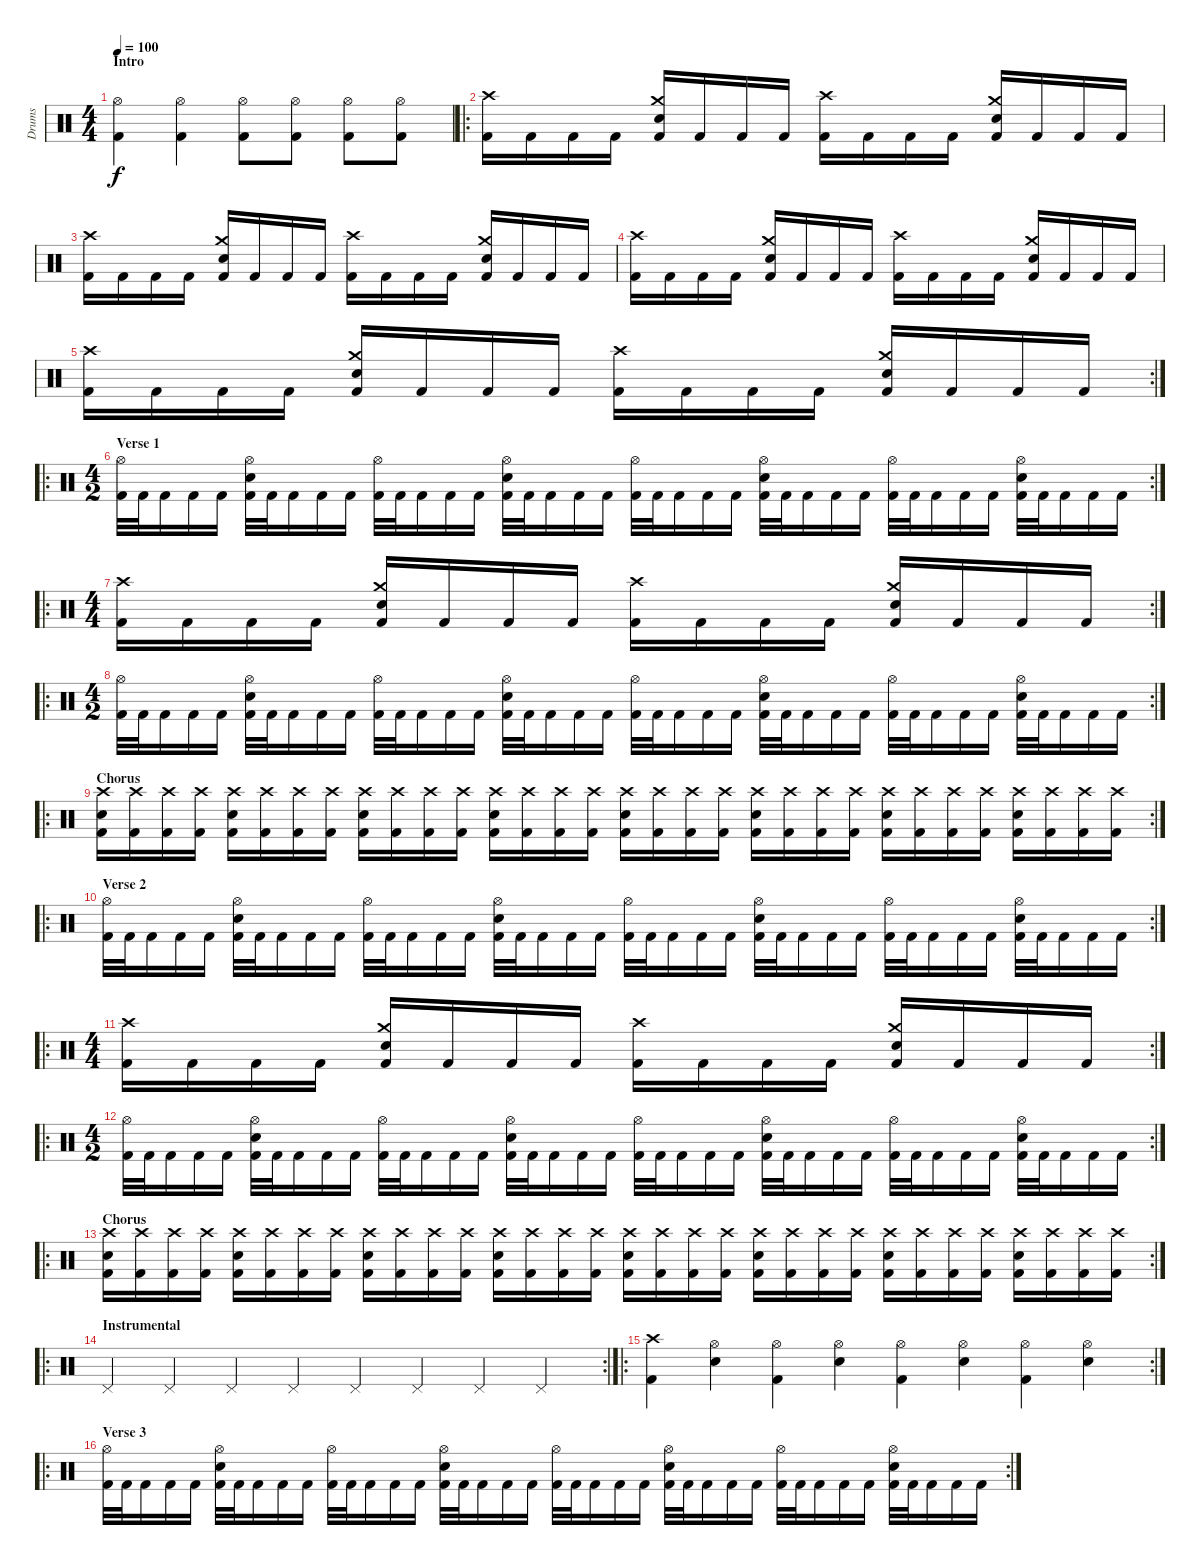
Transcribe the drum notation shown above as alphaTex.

\track ("Drums" "Drums") {instrument percussion}
\staff {score}
\articulation defaults
\ts (4 4)
\section ("" "Intro")
\tempo 100
\clef neutral
\ks c
("Hi-Hat (open)" "Kick (hit) 2").4{dy f} ("Hi-Hat (open)" "Kick (hit) 2").4 ("Hi-Hat (open)" "Kick (hit) 2").8 ("Hi-Hat (open)" "Kick (hit) 2").8 ("Hi-Hat (open)" "Kick (hit) 2").8 ("Hi-Hat (open)" "Kick (hit) 2").8 |
\ro
("Kick (hit) 2" "Crash high (hit)").16 "Kick (hit) 2".16 "Kick (hit) 2".16 "Kick (hit) 2".16 ("Kick (hit) 2" "Crash medium (hit)" "Electric Snare (hit)").16 "Kick (hit) 2".16 "Kick (hit) 2".16 "Kick (hit) 2".16 ("Kick (hit) 2" "Crash high (hit)").16 "Kick (hit) 2".16 "Kick (hit) 2".16 "Kick (hit) 2".16 ("Kick (hit) 2" "Crash medium (hit)" "Electric Snare (hit)").16 "Kick (hit) 2".16 "Kick (hit) 2".16 "Kick (hit) 2".16 |
("Kick (hit) 2" "Crash high (hit)").16 "Kick (hit) 2".16 "Kick (hit) 2".16 "Kick (hit) 2".16 ("Kick (hit) 2" "Crash medium (hit)" "Electric Snare (hit)").16 "Kick (hit) 2".16 "Kick (hit) 2".16 "Kick (hit) 2".16 ("Kick (hit) 2" "Crash high (hit)").16 "Kick (hit) 2".16 "Kick (hit) 2".16 "Kick (hit) 2".16 ("Kick (hit) 2" "Crash medium (hit)" "Electric Snare (hit)").16 "Kick (hit) 2".16 "Kick (hit) 2".16 "Kick (hit) 2".16 |
("Kick (hit) 2" "Crash high (hit)").16 "Kick (hit) 2".16 "Kick (hit) 2".16 "Kick (hit) 2".16 ("Kick (hit) 2" "Crash medium (hit)" "Electric Snare (hit)").16 "Kick (hit) 2".16 "Kick (hit) 2".16 "Kick (hit) 2".16 ("Kick (hit) 2" "Crash high (hit)").16 "Kick (hit) 2".16 "Kick (hit) 2".16 "Kick (hit) 2".16 ("Kick (hit) 2" "Crash medium (hit)" "Electric Snare (hit)").16 "Kick (hit) 2".16 "Kick (hit) 2".16 "Kick (hit) 2".16 |
\rc 2
("Kick (hit) 2" "Crash high (hit)").16 "Kick (hit) 2".16 "Kick (hit) 2".16 "Kick (hit) 2".16 ("Kick (hit) 2" "Crash medium (hit)" "Electric Snare (hit)").16 "Kick (hit) 2".16 "Kick (hit) 2".16 "Kick (hit) 2".16 ("Kick (hit) 2" "Crash high (hit)").16 "Kick (hit) 2".16 "Kick (hit) 2".16 "Kick (hit) 2".16 ("Kick (hit) 2" "Crash medium (hit)" "Electric Snare (hit)").16 "Kick (hit) 2".16 "Kick (hit) 2".16 "Kick (hit) 2".16 |
\ro
\rc 2
\ts (4 2)
\section ("" "Verse 1")
("Kick (hit) 2" "Hi-Hat (open)").32 "Kick (hit) 2".32 "Kick (hit) 2".16 "Kick (hit) 2".16 "Kick (hit) 2".16 ("Kick (hit) 2" "Hi-Hat (open)" "Electric Snare (hit)").32 "Kick (hit) 2".32 "Kick (hit) 2".16 "Kick (hit) 2".16 "Kick (hit) 2".16 ("Kick (hit) 2" "Hi-Hat (open)").32 "Kick (hit) 2".32 "Kick (hit) 2".16 "Kick (hit) 2".16 "Kick (hit) 2".16 ("Kick (hit) 2" "Hi-Hat (open)" "Electric Snare (hit)").32 "Kick (hit) 2".32 "Kick (hit) 2".16 "Kick (hit) 2".16 "Kick (hit) 2".16 ("Kick (hit) 2" "Hi-Hat (open)").32 "Kick (hit) 2".32 "Kick (hit) 2".16 "Kick (hit) 2".16 "Kick (hit) 2".16 ("Kick (hit) 2" "Hi-Hat (open)" "Electric Snare (hit)").32 "Kick (hit) 2".32 "Kick (hit) 2".16 "Kick (hit) 2".16 "Kick (hit) 2".16 ("Kick (hit) 2" "Hi-Hat (open)").32 "Kick (hit) 2".32 "Kick (hit) 2".16 "Kick (hit) 2".16 "Kick (hit) 2".16 ("Kick (hit) 2" "Hi-Hat (open)" "Electric Snare (hit)").32 "Kick (hit) 2".32 "Kick (hit) 2".16 "Kick (hit) 2".16 "Kick (hit) 2".16 |
\ro
\rc 2
\ts (4 4)
("Kick (hit) 2" "Crash high (hit)").16 "Kick (hit) 2".16 "Kick (hit) 2".16 "Kick (hit) 2".16 ("Kick (hit) 2" "Crash medium (hit)" "Electric Snare (hit)").16 "Kick (hit) 2".16 "Kick (hit) 2".16 "Kick (hit) 2".16 ("Kick (hit) 2" "Crash high (hit)").16 "Kick (hit) 2".16 "Kick (hit) 2".16 "Kick (hit) 2".16 ("Kick (hit) 2" "Crash medium (hit)" "Electric Snare (hit)").16 "Kick (hit) 2".16 "Kick (hit) 2".16 "Kick (hit) 2".16 |
\ro
\rc 2
\ts (4 2)
("Kick (hit) 2" "Hi-Hat (open)").32 "Kick (hit) 2".32 "Kick (hit) 2".16 "Kick (hit) 2".16 "Kick (hit) 2".16 ("Kick (hit) 2" "Hi-Hat (open)" "Electric Snare (hit)").32 "Kick (hit) 2".32 "Kick (hit) 2".16 "Kick (hit) 2".16 "Kick (hit) 2".16 ("Kick (hit) 2" "Hi-Hat (open)").32 "Kick (hit) 2".32 "Kick (hit) 2".16 "Kick (hit) 2".16 "Kick (hit) 2".16 ("Kick (hit) 2" "Hi-Hat (open)" "Electric Snare (hit)").32 "Kick (hit) 2".32 "Kick (hit) 2".16 "Kick (hit) 2".16 "Kick (hit) 2".16 ("Kick (hit) 2" "Hi-Hat (open)").32 "Kick (hit) 2".32 "Kick (hit) 2".16 "Kick (hit) 2".16 "Kick (hit) 2".16 ("Kick (hit) 2" "Hi-Hat (open)" "Electric Snare (hit)").32 "Kick (hit) 2".32 "Kick (hit) 2".16 "Kick (hit) 2".16 "Kick (hit) 2".16 ("Kick (hit) 2" "Hi-Hat (open)").32 "Kick (hit) 2".32 "Kick (hit) 2".16 "Kick (hit) 2".16 "Kick (hit) 2".16 ("Kick (hit) 2" "Hi-Hat (open)" "Electric Snare (hit)").32 "Kick (hit) 2".32 "Kick (hit) 2".16 "Kick (hit) 2".16 "Kick (hit) 2".16 |
\ro
\rc 2
\section ("" "Chorus")
("Crash high (hit)" "Kick (hit) 2" "Electric Snare (hit)").16 ("Crash high (hit)" "Kick (hit) 2").16 ("Crash high (hit)" "Kick (hit) 2").16 ("Crash high (hit)" "Kick (hit) 2").16 ("Crash high (hit)" "Kick (hit) 2" "Electric Snare (hit)").16 ("Crash high (hit)" "Kick (hit) 2").16 ("Crash high (hit)" "Kick (hit) 2").16 ("Crash high (hit)" "Kick (hit) 2").16 ("Crash high (hit)" "Kick (hit) 2" "Electric Snare (hit)").16 ("Crash high (hit)" "Kick (hit) 2").16 ("Crash high (hit)" "Kick (hit) 2").16 ("Crash high (hit)" "Kick (hit) 2").16 ("Crash high (hit)" "Kick (hit) 2" "Electric Snare (hit)").16 ("Crash high (hit)" "Kick (hit) 2").16 ("Crash high (hit)" "Kick (hit) 2").16 ("Crash high (hit)" "Kick (hit) 2").16 ("Crash high (hit)" "Kick (hit) 2" "Electric Snare (hit)").16 ("Crash high (hit)" "Kick (hit) 2").16 ("Crash high (hit)" "Kick (hit) 2").16 ("Crash high (hit)" "Kick (hit) 2").16 ("Crash high (hit)" "Kick (hit) 2" "Electric Snare (hit)").16 ("Crash high (hit)" "Kick (hit) 2").16 ("Crash high (hit)" "Kick (hit) 2").16 ("Crash high (hit)" "Kick (hit) 2").16 ("Crash high (hit)" "Kick (hit) 2" "Electric Snare (hit)").16 ("Crash high (hit)" "Kick (hit) 2").16 ("Crash high (hit)" "Kick (hit) 2").16 ("Crash high (hit)" "Kick (hit) 2").16 ("Crash high (hit)" "Kick (hit) 2" "Electric Snare (hit)").16 ("Crash high (hit)" "Kick (hit) 2").16 ("Crash high (hit)" "Kick (hit) 2").16 ("Crash high (hit)" "Kick (hit) 2").16 |
\ro
\rc 2
\section ("" "Verse 2")
("Kick (hit) 2" "Hi-Hat (open)").32 "Kick (hit) 2".32 "Kick (hit) 2".16 "Kick (hit) 2".16 "Kick (hit) 2".16 ("Kick (hit) 2" "Hi-Hat (open)" "Electric Snare (hit)").32 "Kick (hit) 2".32 "Kick (hit) 2".16 "Kick (hit) 2".16 "Kick (hit) 2".16 ("Kick (hit) 2" "Hi-Hat (open)").32 "Kick (hit) 2".32 "Kick (hit) 2".16 "Kick (hit) 2".16 "Kick (hit) 2".16 ("Kick (hit) 2" "Hi-Hat (open)" "Electric Snare (hit)").32 "Kick (hit) 2".32 "Kick (hit) 2".16 "Kick (hit) 2".16 "Kick (hit) 2".16 ("Kick (hit) 2" "Hi-Hat (open)").32 "Kick (hit) 2".32 "Kick (hit) 2".16 "Kick (hit) 2".16 "Kick (hit) 2".16 ("Kick (hit) 2" "Hi-Hat (open)" "Electric Snare (hit)").32 "Kick (hit) 2".32 "Kick (hit) 2".16 "Kick (hit) 2".16 "Kick (hit) 2".16 ("Kick (hit) 2" "Hi-Hat (open)").32 "Kick (hit) 2".32 "Kick (hit) 2".16 "Kick (hit) 2".16 "Kick (hit) 2".16 ("Kick (hit) 2" "Hi-Hat (open)" "Electric Snare (hit)").32 "Kick (hit) 2".32 "Kick (hit) 2".16 "Kick (hit) 2".16 "Kick (hit) 2".16 |
\ro
\rc 2
\ts (4 4)
("Kick (hit) 2" "Crash high (hit)").16 "Kick (hit) 2".16 "Kick (hit) 2".16 "Kick (hit) 2".16 ("Kick (hit) 2" "Crash medium (hit)" "Electric Snare (hit)").16 "Kick (hit) 2".16 "Kick (hit) 2".16 "Kick (hit) 2".16 ("Kick (hit) 2" "Crash high (hit)").16 "Kick (hit) 2".16 "Kick (hit) 2".16 "Kick (hit) 2".16 ("Kick (hit) 2" "Crash medium (hit)" "Electric Snare (hit)").16 "Kick (hit) 2".16 "Kick (hit) 2".16 "Kick (hit) 2".16 |
\ro
\rc 2
\ts (4 2)
("Kick (hit) 2" "Hi-Hat (open)").32 "Kick (hit) 2".32 "Kick (hit) 2".16 "Kick (hit) 2".16 "Kick (hit) 2".16 ("Kick (hit) 2" "Hi-Hat (open)" "Electric Snare (hit)").32 "Kick (hit) 2".32 "Kick (hit) 2".16 "Kick (hit) 2".16 "Kick (hit) 2".16 ("Kick (hit) 2" "Hi-Hat (open)").32 "Kick (hit) 2".32 "Kick (hit) 2".16 "Kick (hit) 2".16 "Kick (hit) 2".16 ("Kick (hit) 2" "Hi-Hat (open)" "Electric Snare (hit)").32 "Kick (hit) 2".32 "Kick (hit) 2".16 "Kick (hit) 2".16 "Kick (hit) 2".16 ("Kick (hit) 2" "Hi-Hat (open)").32 "Kick (hit) 2".32 "Kick (hit) 2".16 "Kick (hit) 2".16 "Kick (hit) 2".16 ("Kick (hit) 2" "Hi-Hat (open)" "Electric Snare (hit)").32 "Kick (hit) 2".32 "Kick (hit) 2".16 "Kick (hit) 2".16 "Kick (hit) 2".16 ("Kick (hit) 2" "Hi-Hat (open)").32 "Kick (hit) 2".32 "Kick (hit) 2".16 "Kick (hit) 2".16 "Kick (hit) 2".16 ("Kick (hit) 2" "Hi-Hat (open)" "Electric Snare (hit)").32 "Kick (hit) 2".32 "Kick (hit) 2".16 "Kick (hit) 2".16 "Kick (hit) 2".16 |
\ro
\rc 2
\section ("" "Chorus")
("Crash high (hit)" "Kick (hit) 2" "Electric Snare (hit)").16 ("Crash high (hit)" "Kick (hit) 2").16 ("Crash high (hit)" "Kick (hit) 2").16 ("Crash high (hit)" "Kick (hit) 2").16 ("Crash high (hit)" "Kick (hit) 2" "Electric Snare (hit)").16 ("Crash high (hit)" "Kick (hit) 2").16 ("Crash high (hit)" "Kick (hit) 2").16 ("Crash high (hit)" "Kick (hit) 2").16 ("Crash high (hit)" "Kick (hit) 2" "Electric Snare (hit)").16 ("Crash high (hit)" "Kick (hit) 2").16 ("Crash high (hit)" "Kick (hit) 2").16 ("Crash high (hit)" "Kick (hit) 2").16 ("Crash high (hit)" "Kick (hit) 2" "Electric Snare (hit)").16 ("Crash high (hit)" "Kick (hit) 2").16 ("Crash high (hit)" "Kick (hit) 2").16 ("Crash high (hit)" "Kick (hit) 2").16 ("Crash high (hit)" "Kick (hit) 2" "Electric Snare (hit)").16 ("Crash high (hit)" "Kick (hit) 2").16 ("Crash high (hit)" "Kick (hit) 2").16 ("Crash high (hit)" "Kick (hit) 2").16 ("Crash high (hit)" "Kick (hit) 2" "Electric Snare (hit)").16 ("Crash high (hit)" "Kick (hit) 2").16 ("Crash high (hit)" "Kick (hit) 2").16 ("Crash high (hit)" "Kick (hit) 2").16 ("Crash high (hit)" "Kick (hit) 2" "Electric Snare (hit)").16 ("Crash high (hit)" "Kick (hit) 2").16 ("Crash high (hit)" "Kick (hit) 2").16 ("Crash high (hit)" "Kick (hit) 2").16 ("Crash high (hit)" "Kick (hit) 2" "Electric Snare (hit)").16 ("Crash high (hit)" "Kick (hit) 2").16 ("Crash high (hit)" "Kick (hit) 2").16 ("Crash high (hit)" "Kick (hit) 2").16 |
\ro
\rc 2
\section ("" "Instrumental")
"Pedal Hi-Hat (hit)".4 "Pedal Hi-Hat (hit)".4 "Pedal Hi-Hat (hit)".4 "Pedal Hi-Hat (hit)".4 "Pedal Hi-Hat (hit)".4 "Pedal Hi-Hat (hit)".4 "Pedal Hi-Hat (hit)".4 "Pedal Hi-Hat (hit)".4 |
\ro
\rc 2
("Crash high (hit)" "Kick (hit) 2").4 ("Hi-Hat (open)" "Electric Snare (hit)").4 ("Hi-Hat (open)" "Kick (hit) 2").4 ("Hi-Hat (open)" "Electric Snare (hit)").4 ("Hi-Hat (open)" "Kick (hit) 2").4 ("Hi-Hat (open)" "Electric Snare (hit)").4 ("Hi-Hat (open)" "Kick (hit) 2").4 ("Hi-Hat (open)" "Electric Snare (hit)").4 |
\ro
\rc 2
\section ("" "Verse 3")
("Kick (hit) 2" "Hi-Hat (open)").32 "Kick (hit) 2".32 "Kick (hit) 2".16 "Kick (hit) 2".16 "Kick (hit) 2".16 ("Kick (hit) 2" "Hi-Hat (open)" "Electric Snare (hit)").32 "Kick (hit) 2".32 "Kick (hit) 2".16 "Kick (hit) 2".16 "Kick (hit) 2".16 ("Kick (hit) 2" "Hi-Hat (open)").32 "Kick (hit) 2".32 "Kick (hit) 2".16 "Kick (hit) 2".16 "Kick (hit) 2".16 ("Kick (hit) 2" "Hi-Hat (open)" "Electric Snare (hit)").32 "Kick (hit) 2".32 "Kick (hit) 2".16 "Kick (hit) 2".16 "Kick (hit) 2".16 ("Kick (hit) 2" "Hi-Hat (open)").32 "Kick (hit) 2".32 "Kick (hit) 2".16 "Kick (hit) 2".16 "Kick (hit) 2".16 ("Kick (hit) 2" "Hi-Hat (open)" "Electric Snare (hit)").32 "Kick (hit) 2".32 "Kick (hit) 2".16 "Kick (hit) 2".16 "Kick (hit) 2".16 ("Kick (hit) 2" "Hi-Hat (open)").32 "Kick (hit) 2".32 "Kick (hit) 2".16 "Kick (hit) 2".16 "Kick (hit) 2".16 ("Kick (hit) 2" "Hi-Hat (open)" "Electric Snare (hit)").32 "Kick (hit) 2".32 "Kick (hit) 2".16 "Kick (hit) 2".16 "Kick (hit) 2".16
